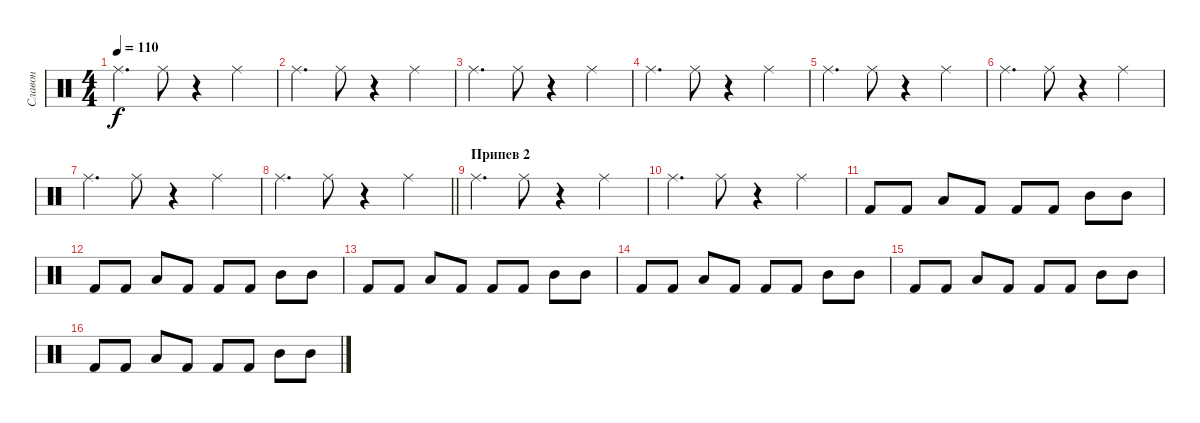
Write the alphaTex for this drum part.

\track ("Славон" "Славон") {instrument percussion}
\staff {score}
\articulation defaults
\ts (4 4)
\tempo 110
\clef neutral
\ks c "Ride (middle)".4{d dy f} "Ride (middle)".8
r.4 "Ride (middle)".4 |
"Ride (middle)".4{d} "Ride (middle)".8 r.4 "Ride (middle)".4 |
"Ride (middle)".4{d} "Ride (middle)".8 r.4 "Ride (middle)".4 |
"Ride (middle)".4{d} "Ride (middle)".8 r.4 "Ride (middle)".4 |
"Ride (middle)".4{d} "Ride (middle)".8 r.4 "Ride (middle)".4 |
"Ride (middle)".4{d} "Ride (middle)".8 r.4 "Ride (middle)".4 |
"Ride (middle)".4{d} "Ride (middle)".8 r.4 "Ride (middle)".4 |
\barLineRight lightlight "Ride (middle)".4{d} "Ride (middle)".8
r.4 "Ride (middle)".4 |
\section ("" "Припев 2")
"Ride (middle)".4{d} "Ride (middle)".8 r.4 "Ride (middle)".4 |
"Ride (middle)".4{d} "Ride (middle)".8 r.4 "Ride (middle)".4 |
"Kick (hit) 2".8 "Kick (hit) 2".8 "Low Tom (hit)".8 "Kick (hit) 2".8 "Kick (hit) 2".8 "Kick (hit) 2".8 "Mid Tom (hit)".8 "Mid Tom (hit)".8 |
"Kick (hit) 2".8 "Kick (hit) 2".8 "Low Tom (hit)".8 "Kick (hit) 2".8 "Kick (hit) 2".8 "Kick (hit) 2".8 "Mid Tom (hit)".8 "Mid Tom (hit)".8 |
"Kick (hit) 2".8 "Kick (hit) 2".8 "Low Tom (hit)".8 "Kick (hit) 2".8 "Kick (hit) 2".8 "Kick (hit) 2".8 "Mid Tom (hit)".8 "Mid Tom (hit)".8 |
"Kick (hit) 2".8 "Kick (hit) 2".8 "Low Tom (hit)".8 "Kick (hit) 2".8 "Kick (hit) 2".8 "Kick (hit) 2".8 "Mid Tom (hit)".8 "Mid Tom (hit)".8 |
"Kick (hit) 2".8 "Kick (hit) 2".8 "Low Tom (hit)".8 "Kick (hit) 2".8 "Kick (hit) 2".8 "Kick (hit) 2".8 "Mid Tom (hit)".8 "Mid Tom (hit)".8 |
"Kick (hit) 2".8 "Kick (hit) 2".8 "Low Tom (hit)".8 "Kick (hit) 2".8 "Kick (hit) 2".8 "Kick (hit) 2".8 "Mid Tom (hit)".8 "Mid Tom (hit)".8
